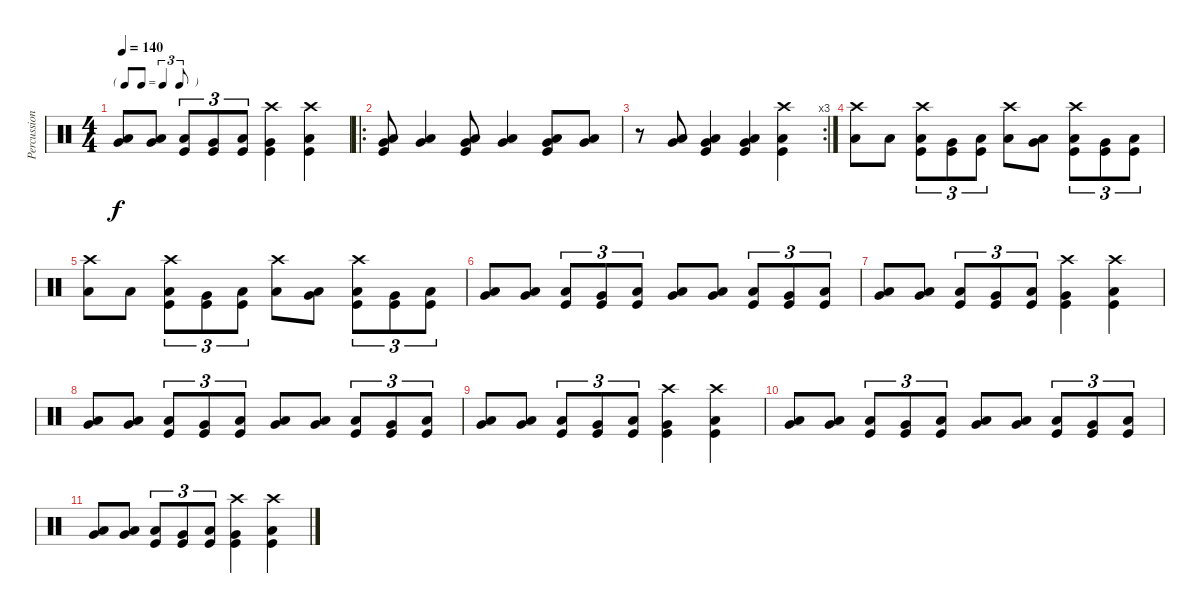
\track ("Percussion" "Percussion") {instrument percussion}
\staff {score}
\articulation defaults
\ts (4 4)
\tf triplet8th
\tempo 140
\clef neutral
\ks c
("Very Low Tom (hit)" "Low Floor Tom (hit)").8{dy f} ("Very Low Tom (hit)" "Low Floor Tom (hit)").8 ("Low Floor Tom (hit)" "Kick (hit)").8{tu (3 2)} ("Very Low Tom (hit)" "Kick (hit)").8{tu (3 2)} ("Low Floor Tom (hit)" "Kick (hit)").8{tu (3 2)} ("Crash high (hit)" "Very Low Tom (hit)" "Kick (hit)").4 ("Crash high (hit)" "Low Floor Tom (hit)" "Kick (hit)").4 |
\ro
("Very Low Tom (hit)" "Low Floor Tom (hit)" "Kick (hit)").8 ("Very Low Tom (hit)" "Low Floor Tom (hit)").4 ("Very Low Tom (hit)" "Low Floor Tom (hit)" "Kick (hit)").8 ("Very Low Tom (hit)" "Low Floor Tom (hit)").4 ("Very Low Tom (hit)" "Low Floor Tom (hit)" "Kick (hit)").8 ("Very Low Tom (hit)" "Low Floor Tom (hit)").8 |
\rc 3
r.8 ("Very Low Tom (hit)" "Low Floor Tom (hit)").8 ("Very Low Tom (hit)" "Low Floor Tom (hit)" "Kick (hit)").4 ("Very Low Tom (hit)" "Low Floor Tom (hit)" "Kick (hit)").4 ("Crash high (hit)" "Low Floor Tom (hit)" "Kick (hit)").4 |
("Crash high (hit)" "Low Floor Tom (hit)").8 "Low Floor Tom (hit)".8 ("Crash high (hit)" "Low Floor Tom (hit)" "Kick (hit)").8{tu (3 2)} ("Very Low Tom (hit)" "Kick (hit)").8{tu (3 2)} ("Low Floor Tom (hit)" "Kick (hit)").8{tu (3 2)} ("Crash high (hit)" "Low Floor Tom (hit)").8 ("Very Low Tom (hit)" "Low Floor Tom (hit)").8 ("Crash high (hit)" "Low Floor Tom (hit)" "Kick (hit)").8{tu (3 2)} ("Very Low Tom (hit)" "Kick (hit)").8{tu (3 2)} ("Low Floor Tom (hit)" "Kick (hit)").8{tu (3 2)} |
("Crash high (hit)" "Low Floor Tom (hit)").8 "Low Floor Tom (hit)".8 ("Crash high (hit)" "Low Floor Tom (hit)" "Kick (hit)").8{tu (3 2)} ("Very Low Tom (hit)" "Kick (hit)").8{tu (3 2)} ("Low Floor Tom (hit)" "Kick (hit)").8{tu (3 2)} ("Crash high (hit)" "Low Floor Tom (hit)").8 ("Very Low Tom (hit)" "Low Floor Tom (hit)").8 ("Crash high (hit)" "Low Floor Tom (hit)" "Kick (hit)").8{tu (3 2)} ("Very Low Tom (hit)" "Kick (hit)").8{tu (3 2)} ("Low Floor Tom (hit)" "Kick (hit)").8{tu (3 2)} |
("Very Low Tom (hit)" "Low Floor Tom (hit)").8 ("Very Low Tom (hit)" "Low Floor Tom (hit)").8 ("Low Floor Tom (hit)" "Kick (hit)").8{tu (3 2)} ("Very Low Tom (hit)" "Kick (hit)").8{tu (3 2)} ("Low Floor Tom (hit)" "Kick (hit)").8{tu (3 2)} ("Very Low Tom (hit)" "Low Floor Tom (hit)").8 ("Very Low Tom (hit)" "Low Floor Tom (hit)").8 ("Low Floor Tom (hit)" "Kick (hit)").8{tu (3 2)} ("Very Low Tom (hit)" "Kick (hit)").8{tu (3 2)} ("Low Floor Tom (hit)" "Kick (hit)").8{tu (3 2)} |
("Very Low Tom (hit)" "Low Floor Tom (hit)").8 ("Very Low Tom (hit)" "Low Floor Tom (hit)").8 ("Low Floor Tom (hit)" "Kick (hit)").8{tu (3 2)} ("Very Low Tom (hit)" "Kick (hit)").8{tu (3 2)} ("Low Floor Tom (hit)" "Kick (hit)").8{tu (3 2)} ("Crash high (hit)" "Very Low Tom (hit)" "Kick (hit)").4 ("Crash high (hit)" "Low Floor Tom (hit)" "Kick (hit)").4 |
("Very Low Tom (hit)" "Low Floor Tom (hit)").8 ("Very Low Tom (hit)" "Low Floor Tom (hit)").8 ("Low Floor Tom (hit)" "Kick (hit)").8{tu (3 2)} ("Very Low Tom (hit)" "Kick (hit)").8{tu (3 2)} ("Low Floor Tom (hit)" "Kick (hit)").8{tu (3 2)} ("Very Low Tom (hit)" "Low Floor Tom (hit)").8 ("Very Low Tom (hit)" "Low Floor Tom (hit)").8 ("Low Floor Tom (hit)" "Kick (hit)").8{tu (3 2)} ("Very Low Tom (hit)" "Kick (hit)").8{tu (3 2)} ("Low Floor Tom (hit)" "Kick (hit)").8{tu (3 2)} |
("Very Low Tom (hit)" "Low Floor Tom (hit)").8 ("Very Low Tom (hit)" "Low Floor Tom (hit)").8 ("Low Floor Tom (hit)" "Kick (hit)").8{tu (3 2)} ("Very Low Tom (hit)" "Kick (hit)").8{tu (3 2)} ("Low Floor Tom (hit)" "Kick (hit)").8{tu (3 2)} ("Crash high (hit)" "Very Low Tom (hit)" "Kick (hit)").4 ("Crash high (hit)" "Low Floor Tom (hit)" "Kick (hit)").4 |
("Very Low Tom (hit)" "Low Floor Tom (hit)").8 ("Very Low Tom (hit)" "Low Floor Tom (hit)").8 ("Low Floor Tom (hit)" "Kick (hit)").8{tu (3 2)} ("Very Low Tom (hit)" "Kick (hit)").8{tu (3 2)} ("Low Floor Tom (hit)" "Kick (hit)").8{tu (3 2)} ("Very Low Tom (hit)" "Low Floor Tom (hit)").8 ("Very Low Tom (hit)" "Low Floor Tom (hit)").8 ("Low Floor Tom (hit)" "Kick (hit)").8{tu (3 2)} ("Very Low Tom (hit)" "Kick (hit)").8{tu (3 2)} ("Low Floor Tom (hit)" "Kick (hit)").8{tu (3 2)} |
("Very Low Tom (hit)" "Low Floor Tom (hit)").8 ("Very Low Tom (hit)" "Low Floor Tom (hit)").8 ("Low Floor Tom (hit)" "Kick (hit)").8{tu (3 2)} ("Very Low Tom (hit)" "Kick (hit)").8{tu (3 2)} ("Low Floor Tom (hit)" "Kick (hit)").8{tu (3 2)} ("Crash high (hit)" "Very Low Tom (hit)" "Kick (hit)").4 ("Crash high (hit)" "Low Floor Tom (hit)" "Kick (hit)").4
